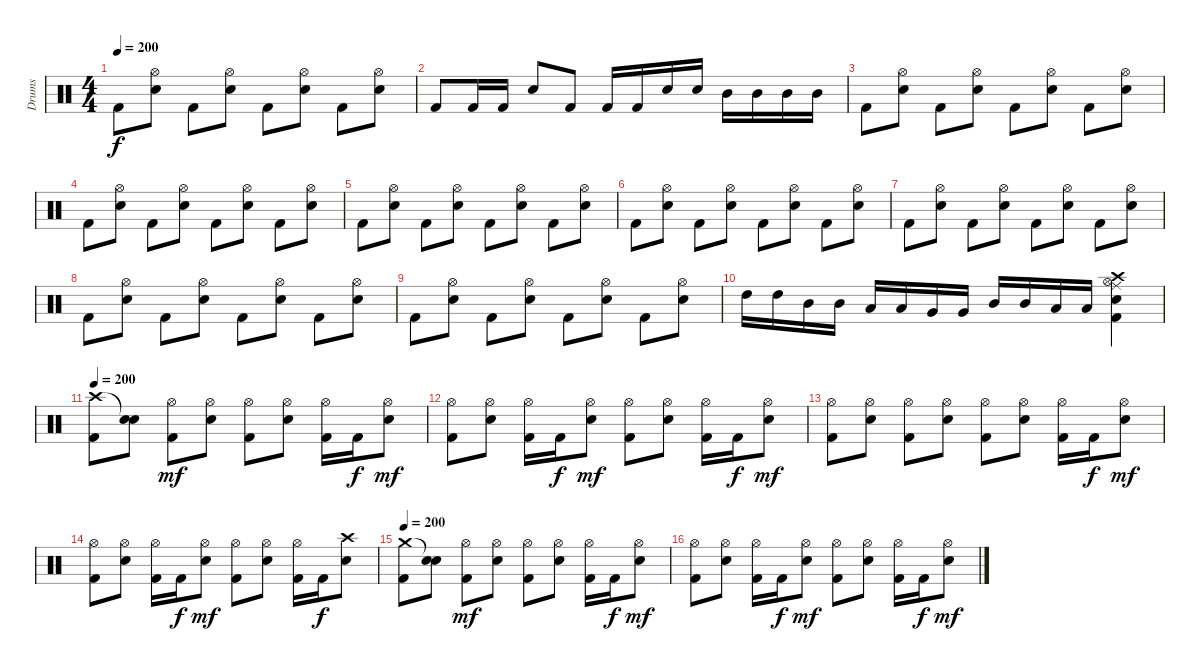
\track ("Drums" "Drums") {instrument percussion}
\staff {score}
\articulation defaults
\ts (4 4)
\tempo 200
\clef neutral
\ks c "Kick (hit) 2".8{dy f}
("Hi-Hat (open)" "Electric Snare (hit)").8 "Kick (hit) 2".8 ("Hi-Hat (open)" "Electric Snare (hit)").8 "Kick (hit) 2".8 ("Hi-Hat (open)" "Electric Snare (hit)").8 "Kick (hit) 2".8 ("Hi-Hat (open)" "Electric Snare (hit)").8 |
"Kick (hit) 2".8 "Kick (hit) 2".16 "Kick (hit) 2".16 "Electric Snare (hit)".8 "Kick (hit) 2".8 "Kick (hit) 2".16 "Kick (hit) 2".16 "Electric Snare (hit)".16 "Electric Snare (hit)".16 "Mid Tom (hit)".16 "Mid Tom (hit)".16 "Mid Tom (hit)".16 "Mid Tom (hit)".16 |
"Kick (hit) 2".8 ("Hi-Hat (open)" "Electric Snare (hit)").8 "Kick (hit) 2".8 ("Hi-Hat (open)" "Electric Snare (hit)").8 "Kick (hit) 2".8 ("Hi-Hat (open)" "Electric Snare (hit)").8 "Kick (hit) 2".8 ("Hi-Hat (open)" "Electric Snare (hit)").8 |
"Kick (hit) 2".8 ("Hi-Hat (open)" "Electric Snare (hit)").8 "Kick (hit) 2".8 ("Hi-Hat (open)" "Electric Snare (hit)").8 "Kick (hit) 2".8 ("Hi-Hat (open)" "Electric Snare (hit)").8 "Kick (hit) 2".8 ("Hi-Hat (open)" "Electric Snare (hit)").8 |
"Kick (hit) 2".8 ("Hi-Hat (open)" "Electric Snare (hit)").8 "Kick (hit) 2".8 ("Hi-Hat (open)" "Electric Snare (hit)").8 "Kick (hit) 2".8 ("Hi-Hat (open)" "Electric Snare (hit)").8 "Kick (hit) 2".8 ("Hi-Hat (open)" "Electric Snare (hit)").8 |
"Kick (hit) 2".8 ("Hi-Hat (open)" "Electric Snare (hit)").8 "Kick (hit) 2".8 ("Hi-Hat (open)" "Electric Snare (hit)").8 "Kick (hit) 2".8 ("Hi-Hat (open)" "Electric Snare (hit)").8 "Kick (hit) 2".8 ("Hi-Hat (open)" "Electric Snare (hit)").8 |
"Kick (hit) 2".8 ("Hi-Hat (open)" "Electric Snare (hit)").8 "Kick (hit) 2".8 ("Hi-Hat (open)" "Electric Snare (hit)").8 "Kick (hit) 2".8 ("Hi-Hat (open)" "Electric Snare (hit)").8 "Kick (hit) 2".8 ("Hi-Hat (open)" "Electric Snare (hit)").8 |
"Kick (hit) 2".8 ("Hi-Hat (open)" "Electric Snare (hit)").8 "Kick (hit) 2".8 ("Hi-Hat (open)" "Electric Snare (hit)").8 "Kick (hit) 2".8 ("Hi-Hat (open)" "Electric Snare (hit)").8 "Kick (hit) 2".8 ("Hi-Hat (open)" "Electric Snare (hit)").8 |
"Kick (hit) 2".8 ("Hi-Hat (open)" "Electric Snare (hit)").8 "Kick (hit) 2".8 ("Hi-Hat (open)" "Electric Snare (hit)").8 "Kick (hit) 2".8 ("Hi-Hat (open)" "Electric Snare (hit)").8 "Kick (hit) 2".8 ("Hi-Hat (open)" "Electric Snare (hit)").8 |
"High Tom (hit)".16 "High Tom (hit)".16 "Mid Tom (hit)".16 "Mid Tom (hit)".16 "Low Tom (hit)".16 "Low Tom (hit)".16 "Very Low Tom (hit)".16 "Very Low Tom (hit)".16 "Mid Tom (hit)".16 "Mid Tom (hit)".16 "Low Tom (hit)".16 "Low Tom (hit)".16 ("Ride (middle)" "Crash high (hit)" "Hi-Hat (open)" "Electric Snare (hit)" "Kick (hit) 2").4 |
\tempo 200
("Crash high (hit)" "Kick (hit) 2").8 ("Snare (hit)"{t} "Electric Snare (hit)").8 ("Hi-Hat (open)" "Kick (hit) 2").8{dy mf} ("Hi-Hat (open)" "Electric Snare (hit)").8 ("Hi-Hat (open)" "Kick (hit) 2").8 ("Hi-Hat (open)" "Electric Snare (hit)").8 ("Hi-Hat (open)" "Kick (hit) 2").16 "Kick (hit) 2".16{dy f} ("Hi-Hat (open)" "Electric Snare (hit)").8{dy mf} |
("Hi-Hat (open)" "Kick (hit) 2").8 ("Hi-Hat (open)" "Electric Snare (hit)").8 ("Hi-Hat (open)" "Kick (hit) 2").16 "Kick (hit) 2".16{dy f} ("Hi-Hat (open)" "Electric Snare (hit)").8{dy mf} ("Hi-Hat (open)" "Kick (hit) 2").8 ("Hi-Hat (open)" "Electric Snare (hit)").8 ("Hi-Hat (open)" "Kick (hit) 2").16 "Kick (hit) 2".16{dy f} ("Hi-Hat (open)" "Electric Snare (hit)").8{dy mf} |
("Hi-Hat (open)" "Kick (hit) 2").8 ("Hi-Hat (open)" "Electric Snare (hit)").8 ("Hi-Hat (open)" "Kick (hit) 2").8 ("Hi-Hat (open)" "Electric Snare (hit)").8 ("Hi-Hat (open)" "Kick (hit) 2").8 ("Hi-Hat (open)" "Electric Snare (hit)").8 ("Hi-Hat (open)" "Kick (hit) 2").16 "Kick (hit) 2".16{dy f} ("Hi-Hat (open)" "Electric Snare (hit)").8{dy mf} |
("Hi-Hat (open)" "Kick (hit) 2").8 ("Hi-Hat (open)" "Electric Snare (hit)").8 ("Hi-Hat (open)" "Kick (hit) 2").16 "Kick (hit) 2".16{dy f} ("Hi-Hat (open)" "Electric Snare (hit)").8{dy mf} ("Hi-Hat (open)" "Kick (hit) 2").8 ("Hi-Hat (open)" "Electric Snare (hit)").8 ("Hi-Hat (open)" "Kick (hit) 2").16 "Kick (hit) 2".16{dy f} ("Crash high (hit)" "Electric Snare (hit)").8 |
\tempo 200
("Crash medium (hit)" "Kick (hit) 2").8 ("Snare (hit)"{t} "Electric Snare (hit)").8 ("Hi-Hat (open)" "Kick (hit) 2").8{dy mf} ("Hi-Hat (open)" "Electric Snare (hit)").8 ("Hi-Hat (open)" "Kick (hit) 2").8 ("Hi-Hat (open)" "Electric Snare (hit)").8 ("Hi-Hat (open)" "Kick (hit) 2").16 "Kick (hit) 2".16{dy f} ("Hi-Hat (open)" "Electric Snare (hit)").8{dy mf} |
("Hi-Hat (open)" "Kick (hit) 2").8 ("Hi-Hat (open)" "Electric Snare (hit)").8 ("Hi-Hat (open)" "Kick (hit) 2").16 "Kick (hit) 2".16{dy f} ("Hi-Hat (open)" "Electric Snare (hit)").8{dy mf} ("Hi-Hat (open)" "Kick (hit) 2").8 ("Hi-Hat (open)" "Electric Snare (hit)").8 ("Hi-Hat (open)" "Kick (hit) 2").16 "Kick (hit) 2".16{dy f} ("Hi-Hat (open)" "Electric Snare (hit)").8{dy mf}
